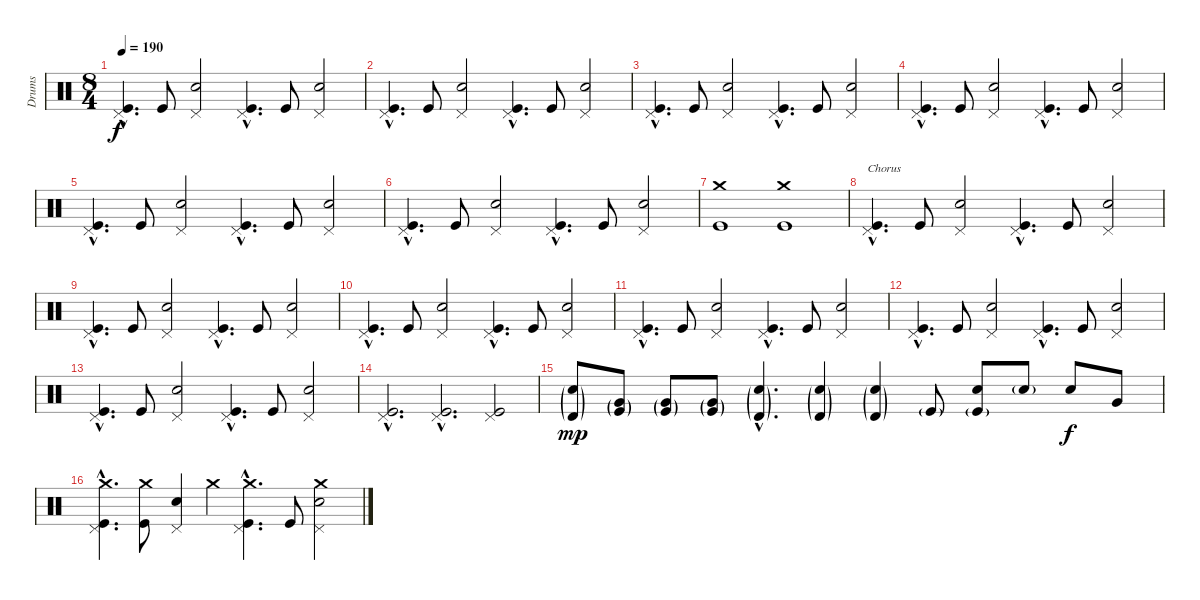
\track ("Drums" "Drums") {instrument percussion}
\staff {score}
\articulation defaults
\ts (8 4)
\tempo 190
\clef neutral
\ks c
("Pedal Hi-Hat (hit)"{hac} "Kick (hit)"{hac}).4{d dy f} "Kick (hit)".8 ("Pedal Hi-Hat (hit)" "Electric Snare (hit)").2 ("Pedal Hi-Hat (hit)"{hac} "Kick (hit)"{hac}).4{d} "Kick (hit)".8 ("Pedal Hi-Hat (hit)" "Electric Snare (hit)").2 |
("Pedal Hi-Hat (hit)"{hac} "Kick (hit)"{hac}).4{d} "Kick (hit)".8 ("Pedal Hi-Hat (hit)" "Electric Snare (hit)").2 ("Pedal Hi-Hat (hit)"{hac} "Kick (hit)"{hac}).4{d} "Kick (hit)".8 ("Pedal Hi-Hat (hit)" "Electric Snare (hit)").2 |
("Pedal Hi-Hat (hit)"{hac} "Kick (hit)"{hac}).4{d} "Kick (hit)".8 ("Pedal Hi-Hat (hit)" "Electric Snare (hit)").2 ("Pedal Hi-Hat (hit)"{hac} "Kick (hit)"{hac}).4{d} "Kick (hit)".8 ("Pedal Hi-Hat (hit)" "Electric Snare (hit)").2 |
("Pedal Hi-Hat (hit)"{hac} "Kick (hit)"{hac}).4{d} "Kick (hit)".8 ("Pedal Hi-Hat (hit)" "Electric Snare (hit)").2 ("Pedal Hi-Hat (hit)"{hac} "Kick (hit)"{hac}).4{d} "Kick (hit)".8 ("Pedal Hi-Hat (hit)" "Electric Snare (hit)").2 |
("Pedal Hi-Hat (hit)"{hac} "Kick (hit)"{hac}).4{d} "Kick (hit)".8 ("Pedal Hi-Hat (hit)" "Electric Snare (hit)").2 ("Pedal Hi-Hat (hit)"{hac} "Kick (hit)"{hac}).4{d} "Kick (hit)".8 ("Pedal Hi-Hat (hit)" "Electric Snare (hit)").2 |
("Pedal Hi-Hat (hit)"{hac} "Kick (hit)"{hac}).4{d} "Kick (hit)".8 ("Pedal Hi-Hat (hit)" "Electric Snare (hit)").2 ("Pedal Hi-Hat (hit)"{hac} "Kick (hit)"{hac}).4{d} "Kick (hit)".8 ("Pedal Hi-Hat (hit)" "Electric Snare (hit)").2 |
("Crash medium (hit)" "Kick (hit)").1 ("Crash medium (hit)" "Kick (hit)").1 |
("Pedal Hi-Hat (hit)"{hac} "Kick (hit)"{hac}).4{d txt "Chorus"} "Kick (hit)".8 ("Pedal Hi-Hat (hit)" "Electric Snare (hit)").2 ("Pedal Hi-Hat (hit)"{hac} "Kick (hit)"{hac}).4{d} "Kick (hit)".8 ("Pedal Hi-Hat (hit)" "Electric Snare (hit)").2 |
("Pedal Hi-Hat (hit)"{hac} "Kick (hit)"{hac}).4{d} "Kick (hit)".8 ("Pedal Hi-Hat (hit)" "Electric Snare (hit)").2 ("Pedal Hi-Hat (hit)"{hac} "Kick (hit)"{hac}).4{d} "Kick (hit)".8 ("Pedal Hi-Hat (hit)" "Electric Snare (hit)").2 |
("Pedal Hi-Hat (hit)"{hac} "Kick (hit)"{hac}).4{d} "Kick (hit)".8 ("Pedal Hi-Hat (hit)" "Electric Snare (hit)").2 ("Pedal Hi-Hat (hit)"{hac} "Kick (hit)"{hac}).4{d} "Kick (hit)".8 ("Pedal Hi-Hat (hit)" "Electric Snare (hit)").2 |
("Pedal Hi-Hat (hit)"{hac} "Kick (hit)"{hac}).4{d} "Kick (hit)".8 ("Pedal Hi-Hat (hit)" "Electric Snare (hit)").2 ("Pedal Hi-Hat (hit)"{hac} "Kick (hit)"{hac}).4{d} "Kick (hit)".8 ("Pedal Hi-Hat (hit)" "Electric Snare (hit)").2 |
("Pedal Hi-Hat (hit)"{hac} "Kick (hit)"{hac}).4{d} "Kick (hit)".8 ("Pedal Hi-Hat (hit)" "Electric Snare (hit)").2 ("Pedal Hi-Hat (hit)"{hac} "Kick (hit)"{hac}).4{d} "Kick (hit)".8 ("Pedal Hi-Hat (hit)" "Electric Snare (hit)").2 |
("Pedal Hi-Hat (hit)"{hac} "Kick (hit)"{hac}).4{d} "Kick (hit)".8 ("Pedal Hi-Hat (hit)" "Electric Snare (hit)").2 ("Pedal Hi-Hat (hit)"{hac} "Kick (hit)"{hac}).4{d} "Kick (hit)".8 ("Pedal Hi-Hat (hit)" "Electric Snare (hit)").2 |
("Pedal Hi-Hat (hit)"{hac} "Kick (hit)"{hac}).2{d} ("Pedal Hi-Hat (hit)"{hac} "Kick (hit)"{hac}).2{d} ("Pedal Hi-Hat (hit)" "Kick (hit)").2 |
("Timbale high (hit)"{g} "Electric Snare (hit)"{g}).8{dy mp} ("Very Low Tom (hit)"{g} "Kick (hit)"{g}).8 ("Very Low Tom (hit)"{g} "Kick (hit)"{g}).8 ("Very Low Tom (hit)"{g} "Kick (hit)"{g}).8 ("Electric Snare (hit)"{g hac} "Timbale high (hit)"{g hac}).4{d} ("Electric Snare (hit)"{g} "Timbale high (hit)"{g}).4 ("Electric Snare (hit)"{g} "Timbale high (hit)"{g}).4 "Kick (hit)"{g}.8 ("Electric Snare (hit)" "Kick (hit)"{g}).8 "Electric Snare (hit)"{g}.8 "Electric Snare (hit)".8{dy f} "Very Low Tom (hit)".8 |
("Crash medium (hit)"{hac} "Pedal Hi-Hat (hit)"{hac} "Kick (hit)"{hac}).4{d} ("Crash medium (hit)" "Kick (hit)").8 ("Pedal Hi-Hat (hit)" "Electric Snare (hit)").4 "Crash medium (hit)".4 ("Pedal Hi-Hat (hit)"{hac} "Crash medium (hit)"{hac} "Kick (hit)"{hac}).4{d} "Kick (hit)".8 ("Pedal Hi-Hat (hit)" "Electric Snare (hit)" "Crash medium (hit)").2
